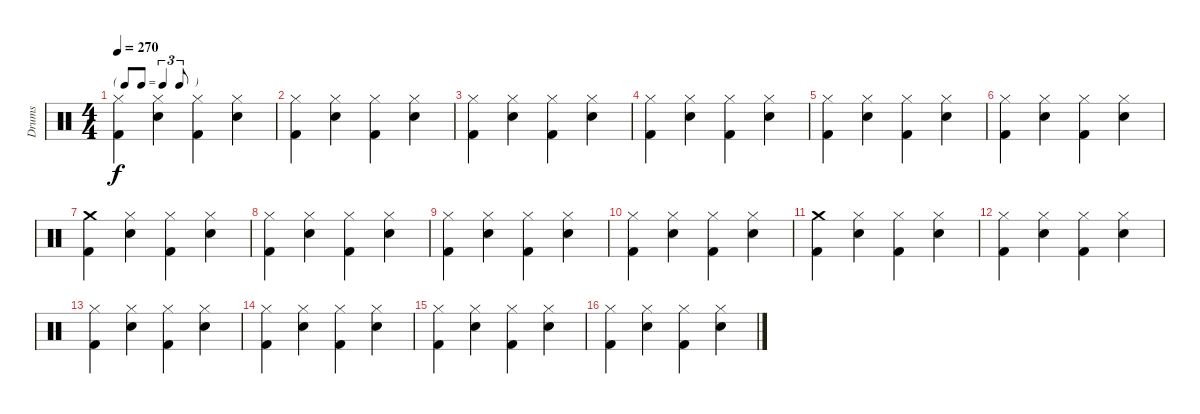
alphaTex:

\track ("Drums" "Drums") {instrument percussion}
\staff {score}
\articulation defaults
\ts (4 4)
\tf triplet8th
\tempo 270
\clef neutral
\ks c
("Hi-Hat (closed)" "Kick (hit) 2").4{dy f} ("Snare (hit) 2" "Hi-Hat (closed)").4 ("Hi-Hat (closed)" "Kick (hit) 2").4 ("Snare (hit) 2" "Hi-Hat (closed)").4 |
("Hi-Hat (closed)" "Kick (hit) 2").4 ("Snare (hit) 2" "Hi-Hat (closed)").4 ("Hi-Hat (closed)" "Kick (hit) 2").4 ("Snare (hit) 2" "Hi-Hat (closed)").4 |
("Hi-Hat (closed)" "Kick (hit) 2").4 ("Snare (hit) 2" "Hi-Hat (closed)").4 ("Hi-Hat (closed)" "Kick (hit) 2").4 ("Snare (hit) 2" "Hi-Hat (closed)").4 |
("Hi-Hat (closed)" "Kick (hit) 2").4 ("Snare (hit) 2" "Hi-Hat (closed)").4 ("Hi-Hat (closed)" "Kick (hit) 2").4 ("Snare (hit) 2" "Hi-Hat (closed)").4 |
("Hi-Hat (closed)" "Kick (hit) 2").4 ("Snare (hit) 2" "Hi-Hat (closed)").4 ("Hi-Hat (closed)" "Kick (hit) 2").4 ("Snare (hit) 2" "Hi-Hat (closed)").4 |
("Hi-Hat (closed)" "Kick (hit) 2").4 ("Snare (hit) 2" "Hi-Hat (closed)").4 ("Hi-Hat (closed)" "Kick (hit) 2").4 ("Snare (hit) 2" "Hi-Hat (closed)").4 |
("Crash medium (hit)" "Kick (hit) 2").4 ("Snare (hit) 2" "Hi-Hat (closed)").4 ("Hi-Hat (closed)" "Kick (hit) 2").4 ("Snare (hit) 2" "Hi-Hat (closed)").4 |
("Hi-Hat (closed)" "Kick (hit) 2").4 ("Snare (hit) 2" "Hi-Hat (closed)").4 ("Hi-Hat (closed)" "Kick (hit) 2").4 ("Snare (hit) 2" "Hi-Hat (closed)").4 |
("Hi-Hat (closed)" "Kick (hit) 2").4 ("Snare (hit) 2" "Hi-Hat (closed)").4 ("Hi-Hat (closed)" "Kick (hit) 2").4 ("Snare (hit) 2" "Hi-Hat (closed)").4 |
("Hi-Hat (closed)" "Kick (hit) 2").4 ("Snare (hit) 2" "Hi-Hat (closed)").4 ("Hi-Hat (closed)" "Kick (hit) 2").4 ("Snare (hit) 2" "Hi-Hat (closed)").4 |
("Crash medium (hit)" "Kick (hit) 2").4 ("Snare (hit) 2" "Hi-Hat (closed)").4 ("Hi-Hat (closed)" "Kick (hit) 2").4 ("Snare (hit) 2" "Hi-Hat (closed)").4 |
("Hi-Hat (closed)" "Kick (hit) 2").4 ("Snare (hit) 2" "Hi-Hat (closed)").4 ("Hi-Hat (closed)" "Kick (hit) 2").4 ("Snare (hit) 2" "Hi-Hat (closed)").4 |
("Hi-Hat (closed)" "Kick (hit) 2").4 ("Snare (hit) 2" "Hi-Hat (closed)").4 ("Hi-Hat (closed)" "Kick (hit) 2").4 ("Snare (hit) 2" "Hi-Hat (closed)").4 |
("Hi-Hat (closed)" "Kick (hit) 2").4 ("Snare (hit) 2" "Hi-Hat (closed)").4 ("Hi-Hat (closed)" "Kick (hit) 2").4 ("Snare (hit) 2" "Hi-Hat (closed)").4 |
("Hi-Hat (closed)" "Kick (hit) 2").4 ("Snare (hit) 2" "Hi-Hat (closed)").4 ("Hi-Hat (closed)" "Kick (hit) 2").4 ("Snare (hit) 2" "Hi-Hat (closed)").4 |
("Hi-Hat (closed)" "Kick (hit) 2").4 ("Snare (hit) 2" "Hi-Hat (closed)").4 ("Hi-Hat (closed)" "Kick (hit) 2").4 ("Snare (hit) 2" "Hi-Hat (closed)").4
